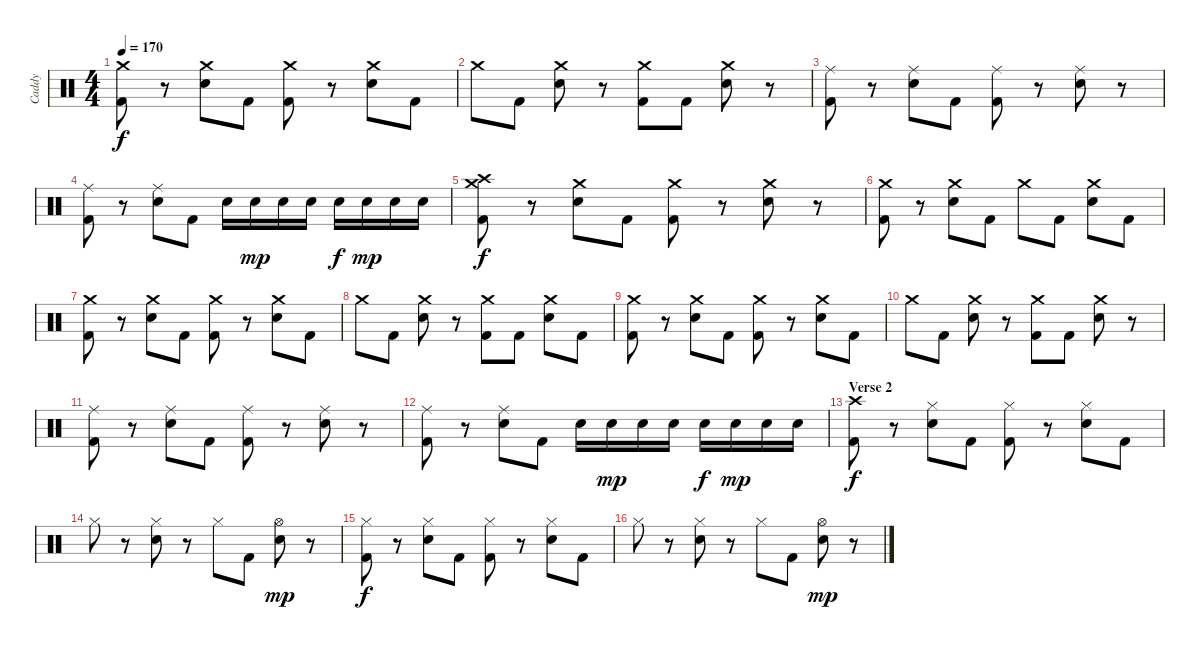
\track ("Caddy" "Caddy") {instrument percussion}
\staff {score}
\articulation defaults
\ts (4 4)
\tempo 170
\clef neutral
\ks c
("Crash medium (hit)" "Kick (hit) 2").8{dy f} r.8 ("Crash medium (hit)" "Electric Snare (hit)").8 "Kick (hit) 2".8 ("Crash medium (hit)" "Kick (hit) 2").8 r.8 ("Crash medium (hit)" "Electric Snare (hit)").8 "Kick (hit) 2".8 |
"Crash medium (hit)".8 "Kick (hit) 2".8 ("Crash medium (hit)" "Electric Snare (hit)").8 r.8 ("Crash medium (hit)" "Kick (hit) 2").8 "Kick (hit) 2".8 ("Crash medium (hit)" "Electric Snare (hit)").8 r.8 |
("Ride (middle)" "Kick (hit) 2").8 r.8 ("Ride (middle)" "Electric Snare (hit)").8 "Kick (hit) 2".8 ("Ride (middle)" "Kick (hit) 2").8 r.8 ("Ride (middle)" "Electric Snare (hit)").8 r.8 |
("Ride (middle)" "Kick (hit) 2").8 r.8 ("Ride (middle)" "Electric Snare (hit)").8 "Kick (hit) 2".8 "Electric Snare (hit)".16 "Electric Snare (hit)".16{dy mp} "Electric Snare (hit)".16 "Electric Snare (hit)".16 "Electric Snare (hit)".16{dy f} "Electric Snare (hit)".16{dy mp} "Electric Snare (hit)".16 "Electric Snare (hit)".16 |
("Crash medium (hit)" "Crash high (hit)" "Kick (hit) 2").8{dy f} r.8 ("Crash medium (hit)" "Electric Snare (hit)").8 "Kick (hit) 2".8 ("Crash medium (hit)" "Kick (hit) 2").8 r.8 ("Crash medium (hit)" "Electric Snare (hit)").8 r.8 |
("Crash medium (hit)" "Kick (hit) 2").8 r.8 ("Crash medium (hit)" "Electric Snare (hit)").8 "Kick (hit) 2".8 "Crash medium (hit)".8 "Kick (hit) 2".8 ("Crash medium (hit)" "Electric Snare (hit)").8 "Kick (hit) 2".8 |
("Crash medium (hit)" "Kick (hit) 2").8 r.8 ("Crash medium (hit)" "Electric Snare (hit)").8 "Kick (hit) 2".8 ("Crash medium (hit)" "Kick (hit) 2").8 r.8 ("Crash medium (hit)" "Electric Snare (hit)").8 "Kick (hit) 2".8 |
"Crash medium (hit)".8 "Kick (hit) 2".8 ("Crash medium (hit)" "Electric Snare (hit)").8 r.8 ("Crash medium (hit)" "Kick (hit) 2").8 "Kick (hit) 2".8 ("Crash medium (hit)" "Electric Snare (hit)").8 "Kick (hit) 2".8 |
("Crash medium (hit)" "Kick (hit) 2").8 r.8 ("Crash medium (hit)" "Electric Snare (hit)").8 "Kick (hit) 2".8 ("Crash medium (hit)" "Kick (hit) 2").8 r.8 ("Crash medium (hit)" "Electric Snare (hit)").8 "Kick (hit) 2".8 |
"Crash medium (hit)".8 "Kick (hit) 2".8 ("Crash medium (hit)" "Electric Snare (hit)").8 r.8 ("Crash medium (hit)" "Kick (hit) 2").8 "Kick (hit) 2".8 ("Crash medium (hit)" "Electric Snare (hit)").8 r.8 |
("Ride (middle)" "Kick (hit) 2").8 r.8 ("Ride (middle)" "Electric Snare (hit)").8 "Kick (hit) 2".8 ("Ride (middle)" "Kick (hit) 2").8 r.8 ("Ride (middle)" "Electric Snare (hit)").8 r.8 |
("Ride (middle)" "Kick (hit) 2").8 r.8 ("Ride (middle)" "Electric Snare (hit)").8 "Kick (hit) 2".8 "Electric Snare (hit)".16 "Electric Snare (hit)".16{dy mp} "Electric Snare (hit)".16 "Electric Snare (hit)".16 "Electric Snare (hit)".16{dy f} "Electric Snare (hit)".16{dy mp} "Electric Snare (hit)".16 "Electric Snare (hit)".16 |
\section ("" "Verse 2")
("Crash high (hit)" "Kick (hit) 2").8{dy f} r.8 ("Hi-Hat (closed)" "Electric Snare (hit)").8 "Kick (hit) 2".8 ("Hi-Hat (closed)" "Kick (hit) 2").8 r.8 ("Hi-Hat (closed)" "Electric Snare (hit)").8 "Kick (hit) 2".8 |
"Hi-Hat (closed)".8 r.8 ("Hi-Hat (closed)" "Electric Snare (hit)").8 r.8 "Hi-Hat (closed)".8 "Kick (hit) 2".8 ("Hi-Hat (open)" "Electric Snare (hit)").8{dy mp} r.8 |
("Hi-Hat (closed)" "Kick (hit) 2").8{dy f} r.8 ("Hi-Hat (closed)" "Electric Snare (hit)").8 "Kick (hit) 2".8 ("Hi-Hat (closed)" "Kick (hit) 2").8 r.8 ("Hi-Hat (closed)" "Electric Snare (hit)").8 "Kick (hit) 2".8 |
"Hi-Hat (closed)".8 r.8 ("Hi-Hat (closed)" "Electric Snare (hit)").8 r.8 "Hi-Hat (closed)".8 "Kick (hit) 2".8 ("Hi-Hat (open)" "Electric Snare (hit)").8{dy mp} r.8
